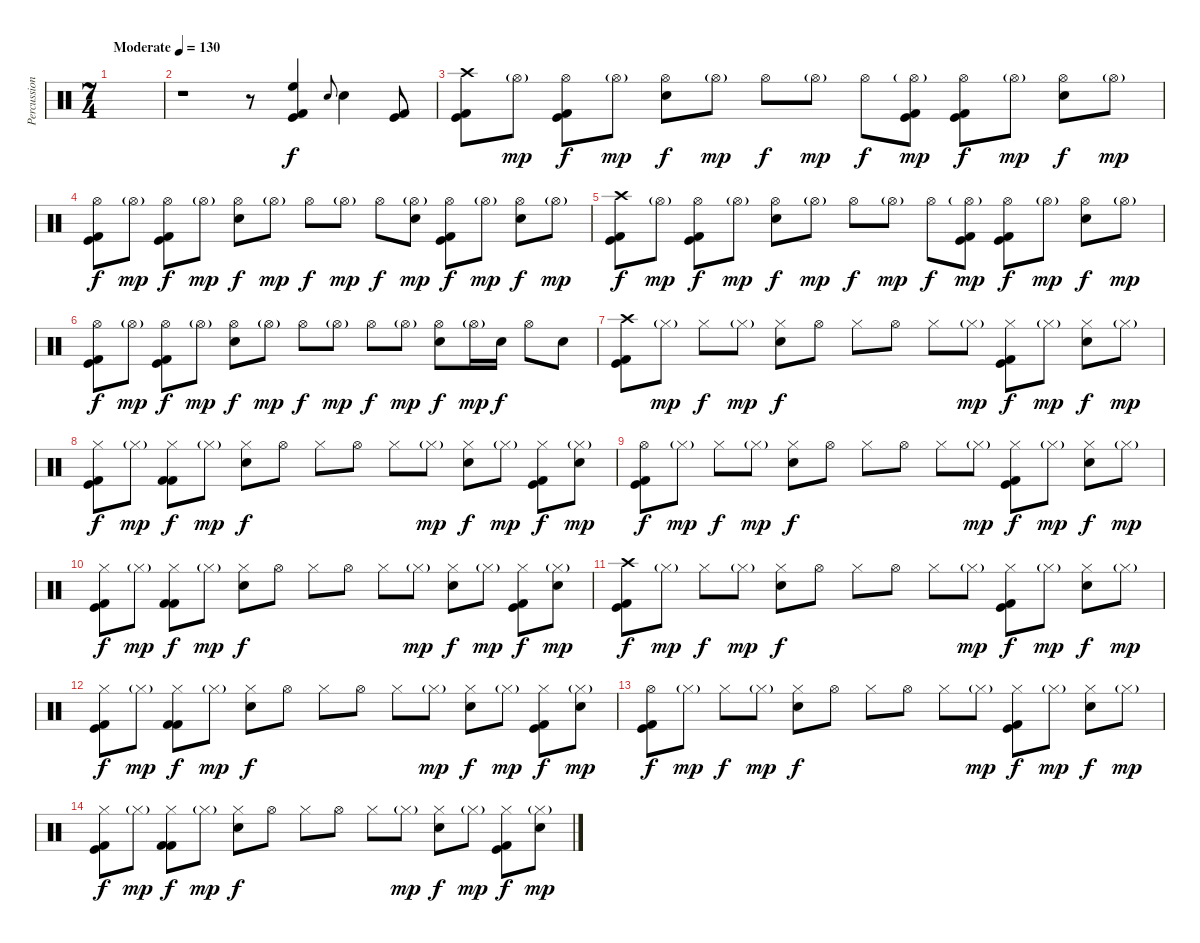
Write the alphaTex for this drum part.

\track ("Percussion" "Percussion") {instrument percussion}
\staff {score}
\articulation defaults
\ts (7 4)
\tempo (130 "Moderate")
\clef neutral
\ks c
|
r.1 r.8 ("High Floor Tom (hit)" "Kick (hit) 2" "Kick (hit)").4 "Snare (hit) 2".8{gr onbeat} "Snare (hit) 2".4 ("Kick (hit) 2" "Kick (hit)").8 |
("Crash high (hit)" "Kick (hit) 2" "Kick (hit)").8 "Hi-Hat (open)"{g}.8{dy mp} ("Hi-Hat (open)" "Kick (hit) 2" "Kick (hit)").8{dy f} "Hi-Hat (open)"{g}.8{dy mp} ("Hi-Hat (open)" "Snare (hit) 2").8{dy f} "Hi-Hat (open)"{g}.8{dy mp} "Hi-Hat (open)".8{dy f} "Hi-Hat (open)"{g}.8{dy mp} "Hi-Hat (open)".8{dy f} ("Hi-Hat (open)"{g} "Kick (hit) 2" "Kick (hit)").8{dy mp} ("Hi-Hat (open)" "Kick (hit) 2" "Kick (hit)").8{dy f} "Hi-Hat (open)"{g}.8{dy mp} ("Hi-Hat (open)" "Snare (hit) 2").8{dy f} "Hi-Hat (open)"{g}.8{dy mp} |
("Hi-Hat (open)" "Kick (hit) 2" "Kick (hit)").8{dy f} "Hi-Hat (open)"{g}.8{dy mp} ("Hi-Hat (open)" "Kick (hit) 2" "Kick (hit)").8{dy f} "Hi-Hat (open)"{g}.8{dy mp} ("Hi-Hat (open)" "Snare (hit) 2").8{dy f} "Hi-Hat (open)"{g}.8{dy mp} "Hi-Hat (open)".8{dy f} "Hi-Hat (open)"{g}.8{dy mp} "Hi-Hat (open)".8{dy f} ("Hi-Hat (open)"{g} "Snare (hit) 2").8{dy mp} ("Hi-Hat (open)" "Kick (hit) 2" "Kick (hit)").8{dy f} "Hi-Hat (open)"{g}.8{dy mp} ("Hi-Hat (open)" "Snare (hit) 2").8{dy f} "Hi-Hat (open)"{g}.8{dy mp} |
("Crash high (hit)" "Kick (hit) 2" "Kick (hit)").8{dy f} "Hi-Hat (open)"{g}.8{dy mp} ("Hi-Hat (open)" "Kick (hit) 2" "Kick (hit)").8{dy f} "Hi-Hat (open)"{g}.8{dy mp} ("Hi-Hat (open)" "Snare (hit) 2").8{dy f} "Hi-Hat (open)"{g}.8{dy mp} "Hi-Hat (open)".8{dy f} "Hi-Hat (open)"{g}.8{dy mp} "Hi-Hat (open)".8{dy f} ("Hi-Hat (open)"{g} "Kick (hit) 2" "Kick (hit)").8{dy mp} ("Hi-Hat (open)" "Kick (hit) 2" "Kick (hit)").8{dy f} "Hi-Hat (open)"{g}.8{dy mp} ("Hi-Hat (open)" "Snare (hit) 2").8{dy f} "Hi-Hat (open)"{g}.8{dy mp} |
("Hi-Hat (open)" "Kick (hit) 2" "Kick (hit)").8{dy f} "Hi-Hat (open)"{g}.8{dy mp} ("Hi-Hat (open)" "Kick (hit) 2" "Kick (hit)").8{dy f} "Hi-Hat (open)"{g}.8{dy mp} ("Hi-Hat (open)" "Snare (hit) 2").8{dy f} "Hi-Hat (open)"{g}.8{dy mp} "Hi-Hat (open)".8{dy f} "Hi-Hat (open)"{g}.8{dy mp} "Hi-Hat (open)".8{dy f} "Hi-Hat (open)"{g}.8{dy mp} ("Hi-Hat (open)" "Snare (hit) 2").8{dy f} "Hi-Hat (open)"{g}.16{dy mp} "Snare (hit) 2".16{dy f} "Hi-Hat (open)".8 "Snare (hit) 2".8 |
("Crash high (hit)" "Kick (hit) 2" "Kick (hit)").8 "Hi-Hat (closed)"{g}.8{dy mp} "Hi-Hat (closed)".8{dy f} "Hi-Hat (closed)"{g}.8{dy mp} ("Hi-Hat (closed)" "Snare (hit) 2").8{dy f} "Hi-Hat (open)".8 "Hi-Hat (closed)".8 "Hi-Hat (open)".8 "Hi-Hat (closed)".8 "Hi-Hat (closed)"{g}.8{dy mp} ("Hi-Hat (closed)" "Kick (hit) 2" "Kick (hit)").8{dy f} "Hi-Hat (closed)"{g}.8{dy mp} ("Hi-Hat (closed)" "Snare (hit) 2").8{dy f} "Hi-Hat (closed)"{g}.8{dy mp} |
("Hi-Hat (closed)" "Kick (hit) 2" "Kick (hit)").8{dy f} "Hi-Hat (closed)"{g}.8{dy mp} ("Hi-Hat (closed)" "Kick (hit) 2" "Kick (hit) 2").8{dy f} "Hi-Hat (closed)"{g}.8{dy mp} ("Hi-Hat (closed)" "Snare (hit) 2").8{dy f} "Hi-Hat (open)".8 "Hi-Hat (closed)".8 "Hi-Hat (open)".8 "Hi-Hat (closed)".8 "Hi-Hat (closed)"{g}.8{dy mp} ("Hi-Hat (closed)" "Snare (hit) 2").8{dy f} "Hi-Hat (closed)"{g}.8{dy mp} ("Hi-Hat (closed)" "Kick (hit) 2" "Kick (hit)").8{dy f} ("Hi-Hat (closed)"{g} "Snare (hit) 2").8{dy mp} |
("Hi-Hat (open)" "Kick (hit) 2" "Kick (hit)").8{dy f} "Hi-Hat (closed)"{g}.8{dy mp} "Hi-Hat (closed)".8{dy f} "Hi-Hat (closed)"{g}.8{dy mp} ("Hi-Hat (closed)" "Snare (hit) 2").8{dy f} "Hi-Hat (open)".8 "Hi-Hat (closed)".8 "Hi-Hat (open)".8 "Hi-Hat (closed)".8 "Hi-Hat (closed)"{g}.8{dy mp} ("Hi-Hat (closed)" "Kick (hit) 2" "Kick (hit)").8{dy f} "Hi-Hat (closed)"{g}.8{dy mp} ("Hi-Hat (closed)" "Snare (hit) 2").8{dy f} "Hi-Hat (closed)"{g}.8{dy mp} |
("Hi-Hat (closed)" "Kick (hit) 2" "Kick (hit)").8{dy f} "Hi-Hat (closed)"{g}.8{dy mp} ("Hi-Hat (closed)" "Kick (hit) 2" "Kick (hit) 2").8{dy f} "Hi-Hat (closed)"{g}.8{dy mp} ("Hi-Hat (closed)" "Snare (hit) 2").8{dy f} "Hi-Hat (open)".8 "Hi-Hat (closed)".8 "Hi-Hat (open)".8 "Hi-Hat (closed)".8 "Hi-Hat (closed)"{g}.8{dy mp} ("Hi-Hat (closed)" "Snare (hit) 2").8{dy f} "Hi-Hat (closed)"{g}.8{dy mp} ("Hi-Hat (closed)" "Kick (hit) 2" "Kick (hit)").8{dy f} ("Hi-Hat (closed)"{g} "Snare (hit) 2").8{dy mp} |
("Crash high (hit)" "Kick (hit) 2" "Kick (hit)").8{dy f} "Hi-Hat (closed)"{g}.8{dy mp} "Hi-Hat (closed)".8{dy f} "Hi-Hat (closed)"{g}.8{dy mp} ("Hi-Hat (closed)" "Snare (hit) 2").8{dy f} "Hi-Hat (open)".8 "Hi-Hat (closed)".8 "Hi-Hat (open)".8 "Hi-Hat (closed)".8 "Hi-Hat (closed)"{g}.8{dy mp} ("Hi-Hat (closed)" "Kick (hit) 2" "Kick (hit)").8{dy f} "Hi-Hat (closed)"{g}.8{dy mp} ("Hi-Hat (closed)" "Snare (hit) 2").8{dy f} "Hi-Hat (closed)"{g}.8{dy mp} |
("Hi-Hat (closed)" "Kick (hit) 2" "Kick (hit)").8{dy f} "Hi-Hat (closed)"{g}.8{dy mp} ("Hi-Hat (closed)" "Kick (hit) 2" "Kick (hit) 2").8{dy f} "Hi-Hat (closed)"{g}.8{dy mp} ("Hi-Hat (closed)" "Snare (hit) 2").8{dy f} "Hi-Hat (open)".8 "Hi-Hat (closed)".8 "Hi-Hat (open)".8 "Hi-Hat (closed)".8 "Hi-Hat (closed)"{g}.8{dy mp} ("Hi-Hat (closed)" "Snare (hit) 2").8{dy f} "Hi-Hat (closed)"{g}.8{dy mp} ("Hi-Hat (closed)" "Kick (hit) 2" "Kick (hit)").8{dy f} ("Hi-Hat (closed)"{g} "Snare (hit) 2").8{dy mp} |
("Hi-Hat (open)" "Kick (hit) 2" "Kick (hit)").8{dy f} "Hi-Hat (closed)"{g}.8{dy mp} "Hi-Hat (closed)".8{dy f} "Hi-Hat (closed)"{g}.8{dy mp} ("Hi-Hat (closed)" "Snare (hit) 2").8{dy f} "Hi-Hat (open)".8 "Hi-Hat (closed)".8 "Hi-Hat (open)".8 "Hi-Hat (closed)".8 "Hi-Hat (closed)"{g}.8{dy mp} ("Hi-Hat (closed)" "Kick (hit) 2" "Kick (hit)").8{dy f} "Hi-Hat (closed)"{g}.8{dy mp} ("Hi-Hat (closed)" "Snare (hit) 2").8{dy f} "Hi-Hat (closed)"{g}.8{dy mp} |
("Hi-Hat (closed)" "Kick (hit) 2" "Kick (hit)").8{dy f} "Hi-Hat (closed)"{g}.8{dy mp} ("Hi-Hat (closed)" "Kick (hit) 2" "Kick (hit) 2").8{dy f} "Hi-Hat (closed)"{g}.8{dy mp} ("Hi-Hat (closed)" "Snare (hit) 2").8{dy f} "Hi-Hat (open)".8 "Hi-Hat (closed)".8 "Hi-Hat (open)".8 "Hi-Hat (closed)".8 "Hi-Hat (closed)"{g}.8{dy mp} ("Hi-Hat (closed)" "Snare (hit) 2").8{dy f} "Hi-Hat (closed)"{g}.8{dy mp} ("Hi-Hat (closed)" "Kick (hit) 2" "Kick (hit)").8{dy f} ("Hi-Hat (closed)"{g} "Snare (hit) 2").8{dy mp}
